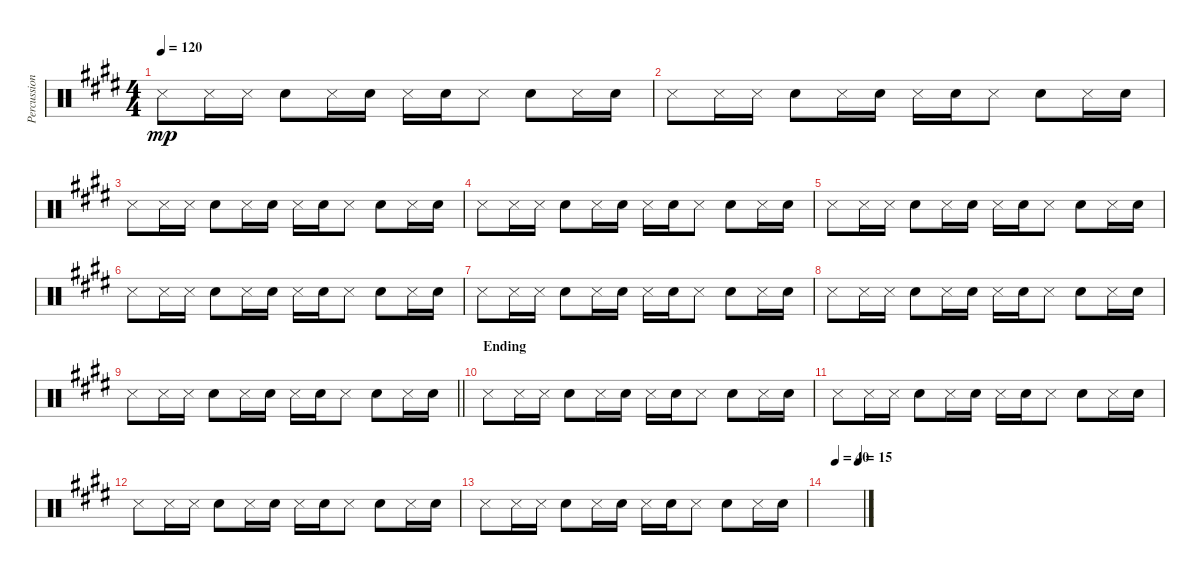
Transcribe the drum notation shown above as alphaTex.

\track ("Percussion (Tainaka Ritsu)" "Percussion") {instrument percussion}
\staff {score}
\articulation defaults
\ts (4 4)
\tempo 120
\clef neutral
\ks e "Snare (side stick) 3".8{dy mp} "Snare (side stick) 3".16 "Snare (side stick) 3".16 "Snare (hit) 2".8 "Snare (side stick) 3".16 "Snare (hit) 2".16 "Snare (side stick) 3".16 "Snare (hit) 2".16 "Snare (side stick) 3".8 "Snare (hit) 2".8 "Snare (side stick) 3".16 "Snare (hit) 2".16
|
"Snare (side stick) 3".8 "Snare (side stick) 3".16 "Snare (side stick) 3".16 "Snare (hit) 2".8 "Snare (side stick) 3".16 "Snare (hit) 2".16 "Snare (side stick) 3".16 "Snare (hit) 2".16 "Snare (side stick) 3".8 "Snare (hit) 2".8 "Snare (side stick) 3".16 "Snare (hit) 2".16 |
"Snare (side stick) 3".8 "Snare (side stick) 3".16 "Snare (side stick) 3".16 "Snare (hit) 2".8 "Snare (side stick) 3".16 "Snare (hit) 2".16 "Snare (side stick) 3".16 "Snare (hit) 2".16 "Snare (side stick) 3".8 "Snare (hit) 2".8 "Snare (side stick) 3".16 "Snare (hit) 2".16 |
"Snare (side stick) 3".8 "Snare (side stick) 3".16 "Snare (side stick) 3".16 "Snare (hit) 2".8 "Snare (side stick) 3".16 "Snare (hit) 2".16 "Snare (side stick) 3".16 "Snare (hit) 2".16 "Snare (side stick) 3".8 "Snare (hit) 2".8 "Snare (side stick) 3".16 "Snare (hit) 2".16 |
"Snare (side stick) 3".8 "Snare (side stick) 3".16 "Snare (side stick) 3".16 "Snare (hit) 2".8 "Snare (side stick) 3".16 "Snare (hit) 2".16 "Snare (side stick) 3".16 "Snare (hit) 2".16 "Snare (side stick) 3".8 "Snare (hit) 2".8 "Snare (side stick) 3".16 "Snare (hit) 2".16 |
"Snare (side stick) 3".8 "Snare (side stick) 3".16 "Snare (side stick) 3".16 "Snare (hit) 2".8 "Snare (side stick) 3".16 "Snare (hit) 2".16 "Snare (side stick) 3".16 "Snare (hit) 2".16 "Snare (side stick) 3".8 "Snare (hit) 2".8 "Snare (side stick) 3".16 "Snare (hit) 2".16 |
"Snare (side stick) 3".8 "Snare (side stick) 3".16 "Snare (side stick) 3".16 "Snare (hit) 2".8 "Snare (side stick) 3".16 "Snare (hit) 2".16 "Snare (side stick) 3".16 "Snare (hit) 2".16 "Snare (side stick) 3".8 "Snare (hit) 2".8 "Snare (side stick) 3".16 "Snare (hit) 2".16 |
"Snare (side stick) 3".8 "Snare (side stick) 3".16 "Snare (side stick) 3".16 "Snare (hit) 2".8 "Snare (side stick) 3".16 "Snare (hit) 2".16 "Snare (side stick) 3".16 "Snare (hit) 2".16 "Snare (side stick) 3".8 "Snare (hit) 2".8 "Snare (side stick) 3".16 "Snare (hit) 2".16 |
\barLineRight lightlight "Snare (side stick) 3".8 "Snare (side stick) 3".16 "Snare (side stick) 3".16 "Snare (hit) 2".8 "Snare (side stick) 3".16 "Snare (hit) 2".16 "Snare (side stick) 3".16 "Snare (hit) 2".16 "Snare (side stick) 3".8 "Snare (hit) 2".8 "Snare (side stick) 3".16 "Snare (hit) 2".16
|
\section ("" "Ending")
"Snare (side stick) 3".8 "Snare (side stick) 3".16 "Snare (side stick) 3".16 "Snare (hit) 2".8 "Snare (side stick) 3".16 "Snare (hit) 2".16 "Snare (side stick) 3".16 "Snare (hit) 2".16 "Snare (side stick) 3".8 "Snare (hit) 2".8 "Snare (side stick) 3".16 "Snare (hit) 2".16 |
"Snare (side stick) 3".8 "Snare (side stick) 3".16 "Snare (side stick) 3".16 "Snare (hit) 2".8 "Snare (side stick) 3".16 "Snare (hit) 2".16 "Snare (side stick) 3".16 "Snare (hit) 2".16 "Snare (side stick) 3".8 "Snare (hit) 2".8 "Snare (side stick) 3".16 "Snare (hit) 2".16 |
"Snare (side stick) 3".8 "Snare (side stick) 3".16 "Snare (side stick) 3".16 "Snare (hit) 2".8 "Snare (side stick) 3".16 "Snare (hit) 2".16 "Snare (side stick) 3".16 "Snare (hit) 2".16 "Snare (side stick) 3".8 "Snare (hit) 2".8 "Snare (side stick) 3".16 "Snare (hit) 2".16 |
"Snare (side stick) 3".8 "Snare (side stick) 3".16 "Snare (side stick) 3".16 "Snare (hit) 2".8 "Snare (side stick) 3".16 "Snare (hit) 2".16 "Snare (side stick) 3".16 "Snare (hit) 2".16 "Snare (side stick) 3".8 "Snare (hit) 2".8 "Snare (side stick) 3".16 "Snare (hit) 2".16 |
\tempo (40 0.25)
\tempo (15 0.875)
